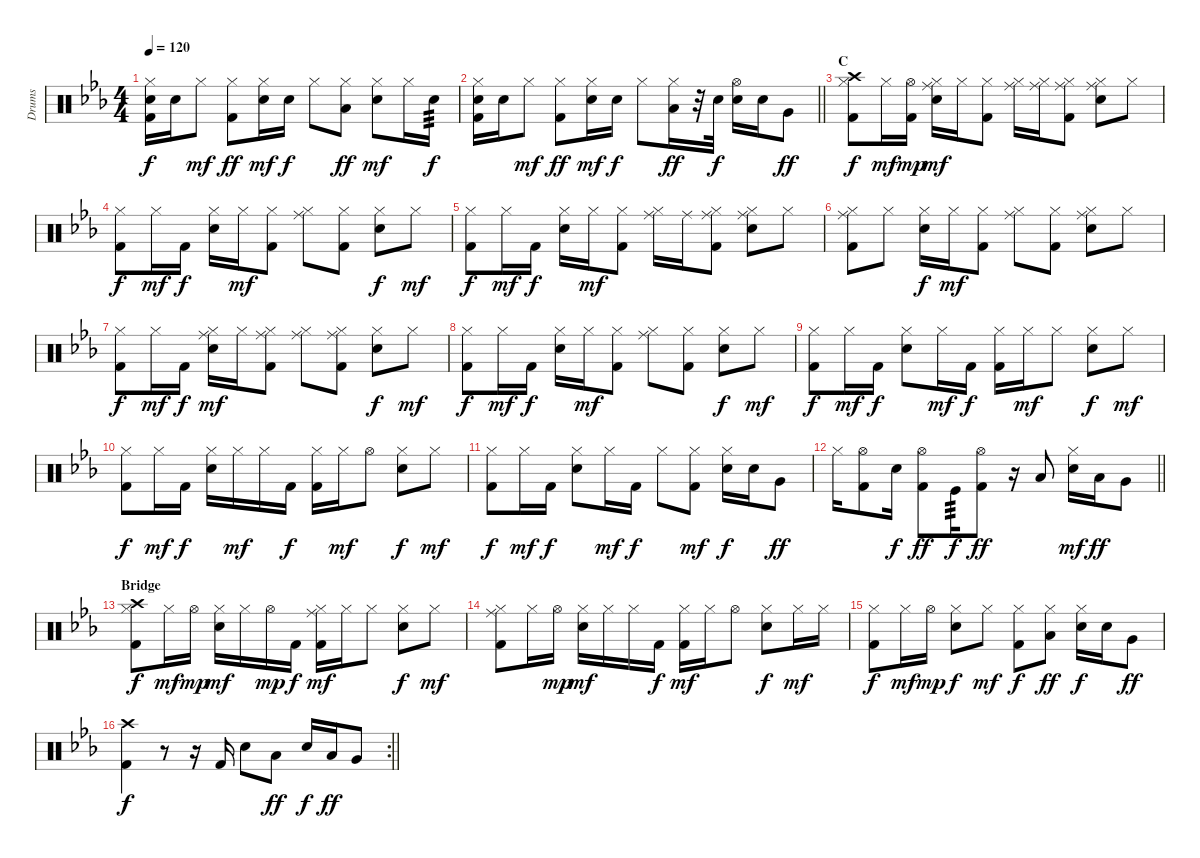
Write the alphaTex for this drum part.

\track ("Drums" "Drums") {instrument percussion}
\staff {score}
\articulation defaults
\ts (4 4)
\tempo 120
\clef neutral
\ks eb
("Hi-Hat (closed)" "Snare (hit) 2" "Kick (hit) 2").16{dy f} "Snare (hit) 2".16 "Hi-Hat (closed)".8{dy mf} ("Hi-Hat (closed)" "Kick (hit) 2").8{dy ff} ("Hi-Hat (closed)" "Snare (hit) 2").16{dy mf} "Snare (hit) 2".16{dy f} "Hi-Hat (closed)".8 ("Hi-Hat (closed)" "Low Tom (hit)").8{dy ff} ("Hi-Hat (closed)" "Snare (hit) 2").8{dy mf} "Hi-Hat (closed)".16 "Snare (hit) 2".16{tp 3 dy f} |
\barLineRight lightlight
("Hi-Hat (closed)" "Snare (hit) 2" "Kick (hit) 2").16 "Snare (hit) 2".16 "Hi-Hat (closed)".8{dy mf} ("Hi-Hat (closed)" "Kick (hit) 2").8{dy ff} ("Hi-Hat (closed)" "Snare (hit) 2").16{dy mf} "Snare (hit) 2".16{dy f} "Hi-Hat (closed)".8 ("Hi-Hat (closed)" "Low Tom (hit)").16{dy ff} r.32 "Snare (hit) 2".32{dy f} ("Hi-Hat (open)" "Snare (hit) 2").16 "Snare (hit) 2".16 "Very Low Tom (hit)".8{dy ff} |
\section ("" "C")
("Hi-Hat (closed)" "Crash high (hit)" "Kick (hit) 2").8{dy f} "Hi-Hat (closed)".16{dy mf} ("Hi-Hat (open)" "Kick (hit) 2").16{dy mp} ("Hi-Hat (closed)" "Snare (hit) 2" "Ride (middle)").16{dy mf} "Hi-Hat (closed)".16 ("Hi-Hat (closed)" "Kick (hit) 2").8 ("Hi-Hat (closed)" "Ride (middle)").16 ("Hi-Hat (closed)" "Ride (middle)").16 ("Hi-Hat (closed)" "Kick (hit) 2" "Ride (middle)").8 ("Hi-Hat (closed)" "Snare (hit) 2" "Ride (middle)").8 "Hi-Hat (closed)".8 |
("Hi-Hat (closed)" "Kick (hit) 2").8{dy f} "Hi-Hat (closed)".16{dy mf} "Kick (hit) 2".16{dy f} ("Hi-Hat (closed)" "Snare (hit) 2").16 "Hi-Hat (closed)".16{dy mf} ("Hi-Hat (closed)" "Kick (hit) 2").8 ("Hi-Hat (closed)" "Ride (middle)").8 ("Hi-Hat (closed)" "Kick (hit) 2").8 ("Hi-Hat (closed)" "Snare (hit) 2").8{dy f} "Hi-Hat (closed)".8{dy mf} |
("Hi-Hat (closed)" "Kick (hit) 2").8{dy f} "Hi-Hat (closed)".16{dy mf} "Kick (hit) 2".16{dy f} ("Hi-Hat (closed)" "Snare (hit) 2").16 "Hi-Hat (closed)".16{dy mf} ("Hi-Hat (closed)" "Kick (hit) 2").8 ("Hi-Hat (closed)" "Ride (middle)").16 "Ride (middle)".16 ("Hi-Hat (closed)" "Kick (hit) 2" "Ride (middle)").8 ("Hi-Hat (closed)" "Snare (hit) 2" "Ride (middle)").8 "Hi-Hat (closed)".8 |
("Hi-Hat (closed)" "Kick (hit) 2" "Ride (middle)").8 "Hi-Hat (closed)".8 ("Hi-Hat (closed)" "Snare (hit) 2").16{dy f} "Hi-Hat (closed)".16{dy mf} ("Hi-Hat (closed)" "Kick (hit) 2").8 ("Hi-Hat (closed)" "Ride (middle)").8 ("Hi-Hat (closed)" "Kick (hit) 2").8 ("Hi-Hat (closed)" "Snare (hit) 2" "Ride (middle)").8 "Hi-Hat (closed)".8 |
("Hi-Hat (closed)" "Kick (hit) 2").8{dy f} "Hi-Hat (closed)".16{dy mf} "Kick (hit) 2".16{dy f} ("Hi-Hat (closed)" "Snare (hit) 2" "Ride (middle)").16{dy mf} "Hi-Hat (closed)".16 ("Hi-Hat (closed)" "Kick (hit) 2" "Ride (middle)").8 ("Hi-Hat (closed)" "Ride (middle)").8 ("Hi-Hat (closed)" "Kick (hit) 2" "Ride (middle)").8 ("Hi-Hat (closed)" "Snare (hit) 2").8{dy f} "Hi-Hat (closed)".8{dy mf} |
("Hi-Hat (closed)" "Kick (hit) 2").8{dy f} "Hi-Hat (closed)".16{dy mf} "Kick (hit) 2".16{dy f} ("Hi-Hat (closed)" "Snare (hit) 2").16 "Hi-Hat (closed)".16{dy mf} ("Hi-Hat (closed)" "Kick (hit) 2").8 ("Hi-Hat (closed)" "Ride (middle)").8 ("Hi-Hat (closed)" "Kick (hit) 2").8 ("Hi-Hat (closed)" "Snare (hit) 2").8{dy f} "Hi-Hat (closed)".8{dy mf} |
("Hi-Hat (closed)" "Kick (hit) 2").8{dy f} "Hi-Hat (closed)".16{dy mf} "Kick (hit) 2".16{dy f} ("Hi-Hat (closed)" "Snare (hit) 2").8 "Hi-Hat (closed)".16{dy mf} "Kick (hit) 2".16{dy f} ("Hi-Hat (closed)" "Kick (hit) 2").16 "Hi-Hat (closed)".16{dy mf} "Hi-Hat (closed)".8 ("Hi-Hat (closed)" "Snare (hit) 2").8{dy f} "Hi-Hat (closed)".8{dy mf} |
("Hi-Hat (closed)" "Kick (hit) 2").8{dy f} "Hi-Hat (closed)".16{dy mf} "Kick (hit) 2".16{dy f} ("Hi-Hat (closed)" "Snare (hit) 2").16 "Hi-Hat (closed)".16{dy mf} "Hi-Hat (closed)".16 "Kick (hit) 2".16{dy f} ("Hi-Hat (closed)" "Kick (hit) 2").16 "Hi-Hat (closed)".16{dy mf} "Hi-Hat (open)".8 ("Hi-Hat (closed)" "Snare (hit) 2").8{dy f} "Hi-Hat (closed)".8{dy mf} |
("Hi-Hat (closed)" "Kick (hit) 2").8{dy f} "Hi-Hat (closed)".16{dy mf} "Kick (hit) 2".16{dy f} ("Hi-Hat (closed)" "Snare (hit) 2").8 "Hi-Hat (closed)".16{dy mf} "Kick (hit) 2".16{dy f} "Hi-Hat (closed)".8 ("Hi-Hat (closed)" "Kick (hit) 2").8{dy mf} ("Hi-Hat (closed)" "Snare (hit) 2").16{dy f} "Snare (hit) 2".16 "Very Low Tom (hit)".8{dy ff} |
\barLineRight lightlight "Hi-Hat (closed)".16
("Hi-Hat (open)" "Kick (hit) 2").8 "Snare (hit) 2".16{dy f} ("Hi-Hat (open)" "Kick (hit) 2").8{dy ff} "Kick (hit)".16{tp 3 dy f} ("Hi-Hat (open)" "Kick (hit) 2").8{dy ff} r.16 "Low Tom (hit)".8 ("Hi-Hat (closed)" "Snare (hit) 2").16{dy mf} "Low Tom (hit)".16{dy ff} "Very Low Tom (hit)".8 |
\section ("" "Bridge")
("Hi-Hat (closed)" "Crash high (hit)" "Kick (hit) 2").8{dy f} "Hi-Hat (closed)".16{dy mf} "Hi-Hat (open)".16{dy mp} ("Hi-Hat (closed)" "Snare (hit) 2").16{dy mf} "Hi-Hat (closed)".16 "Hi-Hat (open)".16{dy mp} "Kick (hit) 2".16{dy f} ("Hi-Hat (closed)" "Kick (hit) 2" "Ride (middle)").16{dy mf} "Hi-Hat (closed)".16 "Hi-Hat (closed)".8 ("Hi-Hat (closed)" "Snare (hit) 2").8{dy f} "Hi-Hat (closed)".8{dy mf} |
("Hi-Hat (closed)" "Kick (hit) 2" "Ride (middle)").8 "Hi-Hat (closed)".16 "Hi-Hat (open)".16{dy mp} ("Hi-Hat (closed)" "Snare (hit) 2").16{dy mf} "Hi-Hat (closed)".16 "Hi-Hat (closed)".16 "Kick (hit) 2".16{dy f} ("Hi-Hat (closed)" "Kick (hit) 2").16{dy mf} "Hi-Hat (closed)".16 "Hi-Hat (open)".8 ("Hi-Hat (closed)" "Snare (hit) 2").8{dy f} "Hi-Hat (closed)".16{dy mf} "Hi-Hat (closed)".16 |
("Hi-Hat (closed)" "Kick (hit) 2").8{dy f} "Hi-Hat (closed)".16{dy mf} "Hi-Hat (open)".16{dy mp} ("Hi-Hat (closed)" "Snare (hit) 2").8{dy f} "Hi-Hat (closed)".8{dy mf} ("Hi-Hat (closed)" "Kick (hit) 2").8{dy f} ("Hi-Hat (closed)" "Low Tom (hit)").8{dy ff} ("Hi-Hat (closed)" "Snare (hit) 2").16{dy f} "Snare (hit) 2".16 "Very Low Tom (hit)".8{dy ff} |
\rc 2
\barLineRight lightlight
("Crash high (hit)" "Kick (hit) 2").4{dy f} r.8 r.16 "Kick (hit) 2".16 "Snare (hit) 2".8 "Low Tom (hit)".8{dy ff} "Snare (hit) 2".16{dy f} "Low Tom (hit)".16{dy ff} "Very Low Tom (hit)".8
